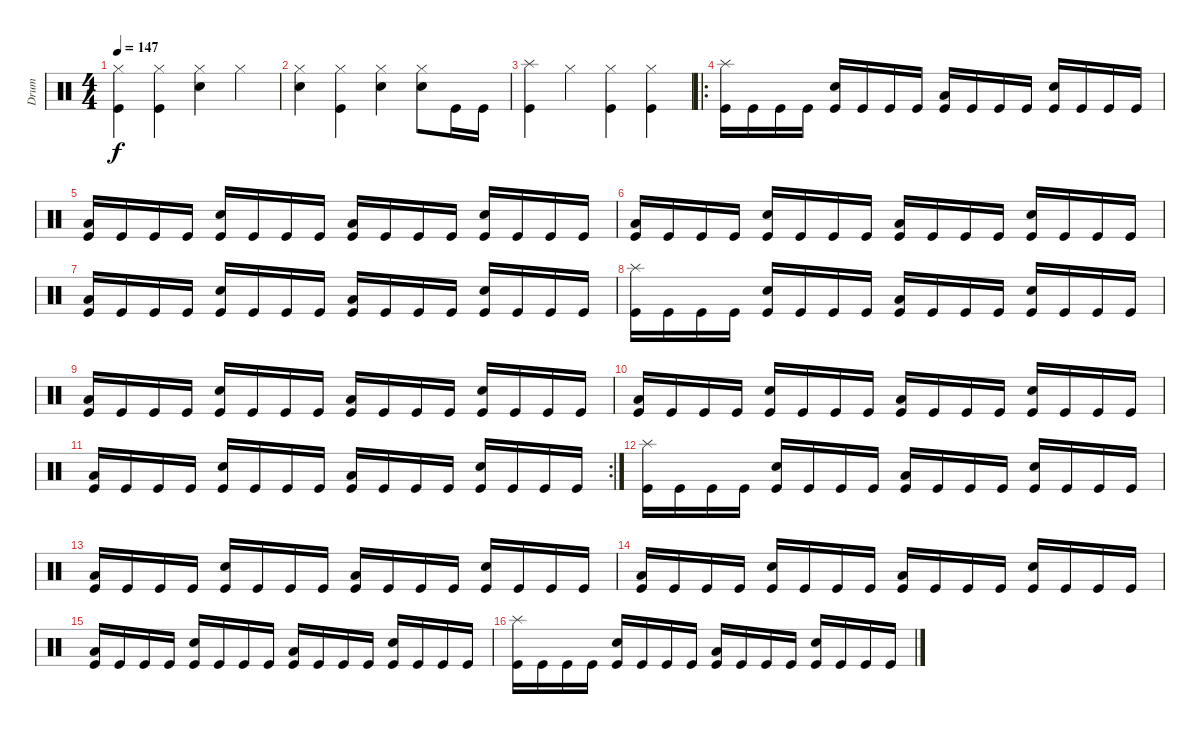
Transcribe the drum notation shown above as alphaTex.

\track ("Drum" "Drum") {instrument percussion}
\staff {score}
\articulation defaults
\ts (4 4)
\tempo 147
\clef neutral
\ks c
("Kick (hit)" "Hi-Hat (closed)").4{dy f} ("Kick (hit)" "Hi-Hat (closed)").4 ("Electric Snare (hit)" "Hi-Hat (closed)").4 "Hi-Hat (closed)".4 |
("Electric Snare (hit)" "Hi-Hat (closed)").4 ("Kick (hit)" "Hi-Hat (closed)").4 ("Electric Snare (hit)" "Hi-Hat (closed)").4 ("Electric Snare (hit)" "Hi-Hat (closed)").8 "Kick (hit)".16 "Kick (hit)".16 |
("Kick (hit)" "Splash (hit)").4 "Hi-Hat (closed)".4 ("Kick (hit)" "Hi-Hat (closed)").4 ("Kick (hit)" "Hi-Hat (closed)").4 |
\ro
("Kick (hit)" "Splash (hit)").16 "Kick (hit)".16 "Kick (hit)".16 "Kick (hit)".16 ("Kick (hit)" "Electric Snare (hit)").16 "Kick (hit)".16 "Kick (hit)".16 "Kick (hit)".16 ("Kick (hit)" "Low Floor Tom (hit)").16 "Kick (hit)".16 "Kick (hit)".16 "Kick (hit)".16 ("Kick (hit)" "Electric Snare (hit)").16 "Kick (hit)".16 "Kick (hit)".16 "Kick (hit)".16 |
("Kick (hit)" "Low Floor Tom (hit)").16 "Kick (hit)".16 "Kick (hit)".16 "Kick (hit)".16 ("Kick (hit)" "Electric Snare (hit)").16 "Kick (hit)".16 "Kick (hit)".16 "Kick (hit)".16 ("Kick (hit)" "Low Floor Tom (hit)").16 "Kick (hit)".16 "Kick (hit)".16 "Kick (hit)".16 ("Kick (hit)" "Electric Snare (hit)").16 "Kick (hit)".16 "Kick (hit)".16 "Kick (hit)".16 |
("Kick (hit)" "Low Floor Tom (hit)").16 "Kick (hit)".16 "Kick (hit)".16 "Kick (hit)".16 ("Kick (hit)" "Electric Snare (hit)").16 "Kick (hit)".16 "Kick (hit)".16 "Kick (hit)".16 ("Kick (hit)" "Low Floor Tom (hit)").16 "Kick (hit)".16 "Kick (hit)".16 "Kick (hit)".16 ("Kick (hit)" "Electric Snare (hit)").16 "Kick (hit)".16 "Kick (hit)".16 "Kick (hit)".16 |
("Kick (hit)" "Low Floor Tom (hit)").16 "Kick (hit)".16 "Kick (hit)".16 "Kick (hit)".16 ("Kick (hit)" "Electric Snare (hit)").16 "Kick (hit)".16 "Kick (hit)".16 "Kick (hit)".16 ("Kick (hit)" "Low Floor Tom (hit)").16 "Kick (hit)".16 "Kick (hit)".16 "Kick (hit)".16 ("Kick (hit)" "Electric Snare (hit)").16 "Kick (hit)".16 "Kick (hit)".16 "Kick (hit)".16 |
("Kick (hit)" "Splash (hit)").16 "Kick (hit)".16 "Kick (hit)".16 "Kick (hit)".16 ("Kick (hit)" "Electric Snare (hit)").16 "Kick (hit)".16 "Kick (hit)".16 "Kick (hit)".16 ("Kick (hit)" "Low Floor Tom (hit)").16 "Kick (hit)".16 "Kick (hit)".16 "Kick (hit)".16 ("Kick (hit)" "Electric Snare (hit)").16 "Kick (hit)".16 "Kick (hit)".16 "Kick (hit)".16 |
("Kick (hit)" "Low Floor Tom (hit)").16 "Kick (hit)".16 "Kick (hit)".16 "Kick (hit)".16 ("Kick (hit)" "Electric Snare (hit)").16 "Kick (hit)".16 "Kick (hit)".16 "Kick (hit)".16 ("Kick (hit)" "Low Floor Tom (hit)").16 "Kick (hit)".16 "Kick (hit)".16 "Kick (hit)".16 ("Kick (hit)" "Electric Snare (hit)").16 "Kick (hit)".16 "Kick (hit)".16 "Kick (hit)".16 |
("Kick (hit)" "Low Floor Tom (hit)").16 "Kick (hit)".16 "Kick (hit)".16 "Kick (hit)".16 ("Kick (hit)" "Electric Snare (hit)").16 "Kick (hit)".16 "Kick (hit)".16 "Kick (hit)".16 ("Kick (hit)" "Low Floor Tom (hit)").16 "Kick (hit)".16 "Kick (hit)".16 "Kick (hit)".16 ("Kick (hit)" "Electric Snare (hit)").16 "Kick (hit)".16 "Kick (hit)".16 "Kick (hit)".16 |
\rc 2
("Kick (hit)" "Low Floor Tom (hit)").16 "Kick (hit)".16 "Kick (hit)".16 "Kick (hit)".16 ("Kick (hit)" "Electric Snare (hit)").16 "Kick (hit)".16 "Kick (hit)".16 "Kick (hit)".16 ("Kick (hit)" "Low Floor Tom (hit)").16 "Kick (hit)".16 "Kick (hit)".16 "Kick (hit)".16 ("Kick (hit)" "Electric Snare (hit)").16 "Kick (hit)".16 "Kick (hit)".16 "Kick (hit)".16 |
("Kick (hit)" "Splash (hit)").16 "Kick (hit)".16 "Kick (hit)".16 "Kick (hit)".16 ("Kick (hit)" "Electric Snare (hit)").16 "Kick (hit)".16 "Kick (hit)".16 "Kick (hit)".16 ("Kick (hit)" "Low Floor Tom (hit)").16 "Kick (hit)".16 "Kick (hit)".16 "Kick (hit)".16 ("Kick (hit)" "Electric Snare (hit)").16 "Kick (hit)".16 "Kick (hit)".16 "Kick (hit)".16 |
("Kick (hit)" "Low Floor Tom (hit)").16 "Kick (hit)".16 "Kick (hit)".16 "Kick (hit)".16 ("Kick (hit)" "Electric Snare (hit)").16 "Kick (hit)".16 "Kick (hit)".16 "Kick (hit)".16 ("Kick (hit)" "Low Floor Tom (hit)").16 "Kick (hit)".16 "Kick (hit)".16 "Kick (hit)".16 ("Kick (hit)" "Electric Snare (hit)").16 "Kick (hit)".16 "Kick (hit)".16 "Kick (hit)".16 |
("Kick (hit)" "Low Floor Tom (hit)").16 "Kick (hit)".16 "Kick (hit)".16 "Kick (hit)".16 ("Kick (hit)" "Electric Snare (hit)").16 "Kick (hit)".16 "Kick (hit)".16 "Kick (hit)".16 ("Kick (hit)" "Low Floor Tom (hit)").16 "Kick (hit)".16 "Kick (hit)".16 "Kick (hit)".16 ("Kick (hit)" "Electric Snare (hit)").16 "Kick (hit)".16 "Kick (hit)".16 "Kick (hit)".16 |
("Kick (hit)" "Low Floor Tom (hit)").16 "Kick (hit)".16 "Kick (hit)".16 "Kick (hit)".16 ("Kick (hit)" "Electric Snare (hit)").16 "Kick (hit)".16 "Kick (hit)".16 "Kick (hit)".16 ("Kick (hit)" "Low Floor Tom (hit)").16 "Kick (hit)".16 "Kick (hit)".16 "Kick (hit)".16 ("Kick (hit)" "Electric Snare (hit)").16 "Kick (hit)".16 "Kick (hit)".16 "Kick (hit)".16 |
("Kick (hit)" "Splash (hit)").16 "Kick (hit)".16 "Kick (hit)".16 "Kick (hit)".16 ("Kick (hit)" "Electric Snare (hit)").16 "Kick (hit)".16 "Kick (hit)".16 "Kick (hit)".16 ("Kick (hit)" "Low Floor Tom (hit)").16 "Kick (hit)".16 "Kick (hit)".16 "Kick (hit)".16 ("Kick (hit)" "Electric Snare (hit)").16 "Kick (hit)".16 "Kick (hit)".16 "Kick (hit)".16
